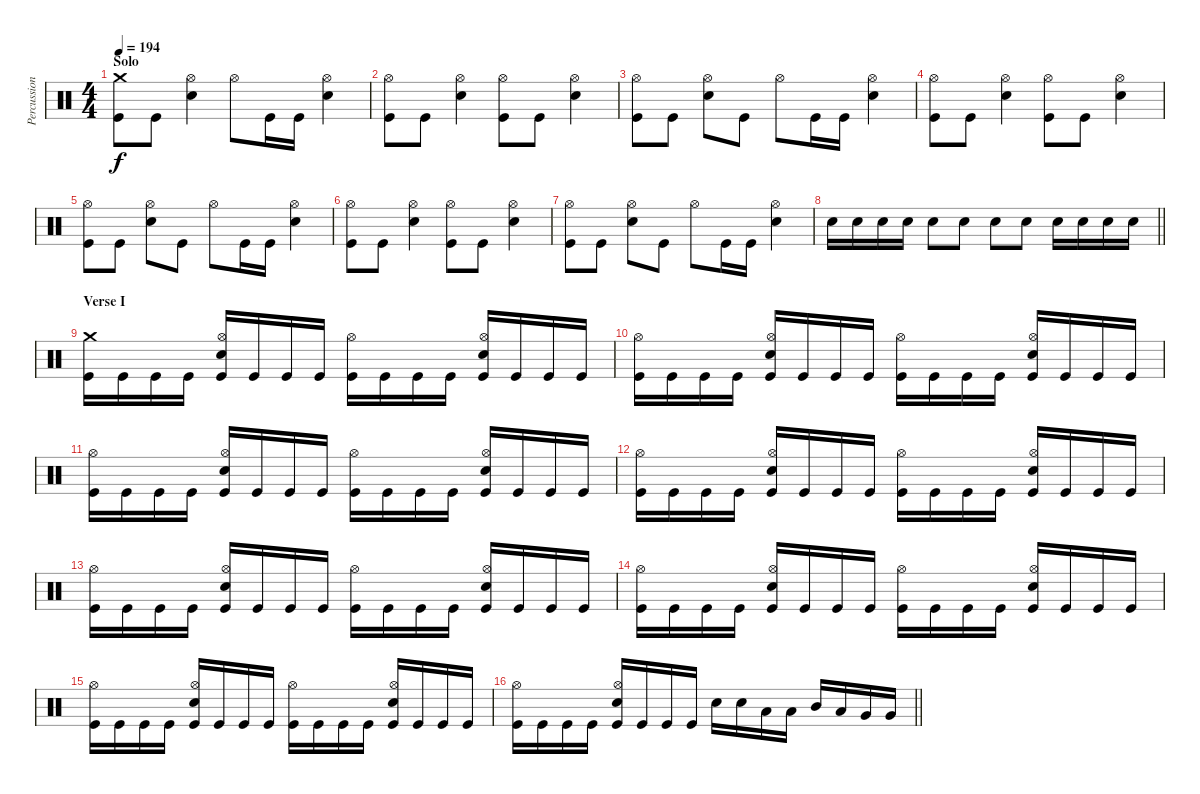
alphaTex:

\track ("Percussion" "Percussion") {instrument percussion}
\staff {score}
\articulation defaults
\ts (4 4)
\section ("" "Solo")
\tempo 194
\clef neutral
\ks c
("Crash medium (hit)" "Kick (hit)").8{dy f} "Kick (hit)".8 ("Hi-Hat (open)" "Electric Snare (hit)").4 "Hi-Hat (open)".8 "Kick (hit)".16 "Kick (hit)".16 ("Hi-Hat (open)" "Electric Snare (hit)").4 |
("Hi-Hat (open)" "Kick (hit)").8 "Kick (hit)".8 ("Hi-Hat (open)" "Electric Snare (hit)").4 ("Hi-Hat (open)" "Kick (hit)").8 "Kick (hit)".8 ("Hi-Hat (open)" "Electric Snare (hit)").4 |
("Hi-Hat (open)" "Kick (hit)").8 "Kick (hit)".8 ("Hi-Hat (open)" "Electric Snare (hit)").8 "Kick (hit)".8 "Hi-Hat (open)".8 "Kick (hit)".16 "Kick (hit)".16 ("Hi-Hat (open)" "Electric Snare (hit)").4 |
("Hi-Hat (open)" "Kick (hit)").8 "Kick (hit)".8 ("Hi-Hat (open)" "Electric Snare (hit)").4 ("Hi-Hat (open)" "Kick (hit)").8 "Kick (hit)".8 ("Hi-Hat (open)" "Electric Snare (hit)").4 |
("Hi-Hat (open)" "Kick (hit)").8 "Kick (hit)".8 ("Hi-Hat (open)" "Electric Snare (hit)").8 "Kick (hit)".8 "Hi-Hat (open)".8 "Kick (hit)".16 "Kick (hit)".16 ("Hi-Hat (open)" "Electric Snare (hit)").4 |
("Hi-Hat (open)" "Kick (hit)").8 "Kick (hit)".8 ("Hi-Hat (open)" "Electric Snare (hit)").4 ("Hi-Hat (open)" "Kick (hit)").8 "Kick (hit)".8 ("Hi-Hat (open)" "Electric Snare (hit)").4 |
("Hi-Hat (open)" "Kick (hit)").8 "Kick (hit)".8 ("Hi-Hat (open)" "Electric Snare (hit)").8 "Kick (hit)".8 "Hi-Hat (open)".8 "Kick (hit)".16 "Kick (hit)".16 ("Hi-Hat (open)" "Electric Snare (hit)").4 |
\barLineRight lightlight "Electric Snare (hit)".16 "Electric Snare (hit)".16 "Electric Snare (hit)".16 "Electric Snare (hit)".16 "Electric Snare (hit)".8 "Electric Snare (hit)".8 "Electric Snare (hit)".8 "Electric Snare (hit)".8 "Electric Snare (hit)".16 "Electric Snare (hit)".16 "Electric Snare (hit)".16 "Electric Snare (hit)".16
|
\section ("" "Verse I")
("Crash medium (hit)" "Kick (hit)").16 "Kick (hit)".16 "Kick (hit)".16 "Kick (hit)".16 ("Hi-Hat (open)" "Electric Snare (hit)" "Kick (hit)").16 "Kick (hit)".16 "Kick (hit)".16 "Kick (hit)".16 ("Hi-Hat (open)" "Kick (hit)").16 "Kick (hit)".16 "Kick (hit)".16 "Kick (hit)".16 ("Hi-Hat (open)" "Electric Snare (hit)" "Kick (hit)").16 "Kick (hit)".16 "Kick (hit)".16 "Kick (hit)".16 |
("Hi-Hat (open)" "Kick (hit)").16 "Kick (hit)".16 "Kick (hit)".16 "Kick (hit)".16 ("Hi-Hat (open)" "Electric Snare (hit)" "Kick (hit)").16 "Kick (hit)".16 "Kick (hit)".16 "Kick (hit)".16 ("Hi-Hat (open)" "Kick (hit)").16 "Kick (hit)".16 "Kick (hit)".16 "Kick (hit)".16 ("Hi-Hat (open)" "Electric Snare (hit)" "Kick (hit)").16 "Kick (hit)".16 "Kick (hit)".16 "Kick (hit)".16 |
("Hi-Hat (open)" "Kick (hit)").16 "Kick (hit)".16 "Kick (hit)".16 "Kick (hit)".16 ("Hi-Hat (open)" "Electric Snare (hit)" "Kick (hit)").16 "Kick (hit)".16 "Kick (hit)".16 "Kick (hit)".16 ("Hi-Hat (open)" "Kick (hit)").16 "Kick (hit)".16 "Kick (hit)".16 "Kick (hit)".16 ("Hi-Hat (open)" "Electric Snare (hit)" "Kick (hit)").16 "Kick (hit)".16 "Kick (hit)".16 "Kick (hit)".16 |
("Hi-Hat (open)" "Kick (hit)").16 "Kick (hit)".16 "Kick (hit)".16 "Kick (hit)".16 ("Hi-Hat (open)" "Electric Snare (hit)" "Kick (hit)").16 "Kick (hit)".16 "Kick (hit)".16 "Kick (hit)".16 ("Hi-Hat (open)" "Kick (hit)").16 "Kick (hit)".16 "Kick (hit)".16 "Kick (hit)".16 ("Hi-Hat (open)" "Electric Snare (hit)" "Kick (hit)").16 "Kick (hit)".16 "Kick (hit)".16 "Kick (hit)".16 |
("Hi-Hat (open)" "Kick (hit)").16 "Kick (hit)".16 "Kick (hit)".16 "Kick (hit)".16 ("Hi-Hat (open)" "Electric Snare (hit)" "Kick (hit)").16 "Kick (hit)".16 "Kick (hit)".16 "Kick (hit)".16 ("Hi-Hat (open)" "Kick (hit)").16 "Kick (hit)".16 "Kick (hit)".16 "Kick (hit)".16 ("Hi-Hat (open)" "Electric Snare (hit)" "Kick (hit)").16 "Kick (hit)".16 "Kick (hit)".16 "Kick (hit)".16 |
("Hi-Hat (open)" "Kick (hit)").16 "Kick (hit)".16 "Kick (hit)".16 "Kick (hit)".16 ("Hi-Hat (open)" "Electric Snare (hit)" "Kick (hit)").16 "Kick (hit)".16 "Kick (hit)".16 "Kick (hit)".16 ("Hi-Hat (open)" "Kick (hit)").16 "Kick (hit)".16 "Kick (hit)".16 "Kick (hit)".16 ("Hi-Hat (open)" "Electric Snare (hit)" "Kick (hit)").16 "Kick (hit)".16 "Kick (hit)".16 "Kick (hit)".16 |
("Hi-Hat (open)" "Kick (hit)").16 "Kick (hit)".16 "Kick (hit)".16 "Kick (hit)".16 ("Hi-Hat (open)" "Electric Snare (hit)" "Kick (hit)").16 "Kick (hit)".16 "Kick (hit)".16 "Kick (hit)".16 ("Hi-Hat (open)" "Kick (hit)").16 "Kick (hit)".16 "Kick (hit)".16 "Kick (hit)".16 ("Hi-Hat (open)" "Electric Snare (hit)" "Kick (hit)").16 "Kick (hit)".16 "Kick (hit)".16 "Kick (hit)".16 |
\barLineRight lightlight
("Hi-Hat (open)" "Kick (hit)").16 "Kick (hit)".16 "Kick (hit)".16 "Kick (hit)".16 ("Hi-Hat (open)" "Electric Snare (hit)" "Kick (hit)").16 "Kick (hit)".16 "Kick (hit)".16 "Kick (hit)".16 "Electric Snare (hit)".16 "Electric Snare (hit)".16 "Low Tom (hit)".16 "Low Tom (hit)".16 "Mid Tom (hit)".16 "Low Tom (hit)".16 "Very Low Tom (hit)".16 "Very Low Tom (hit)".16
